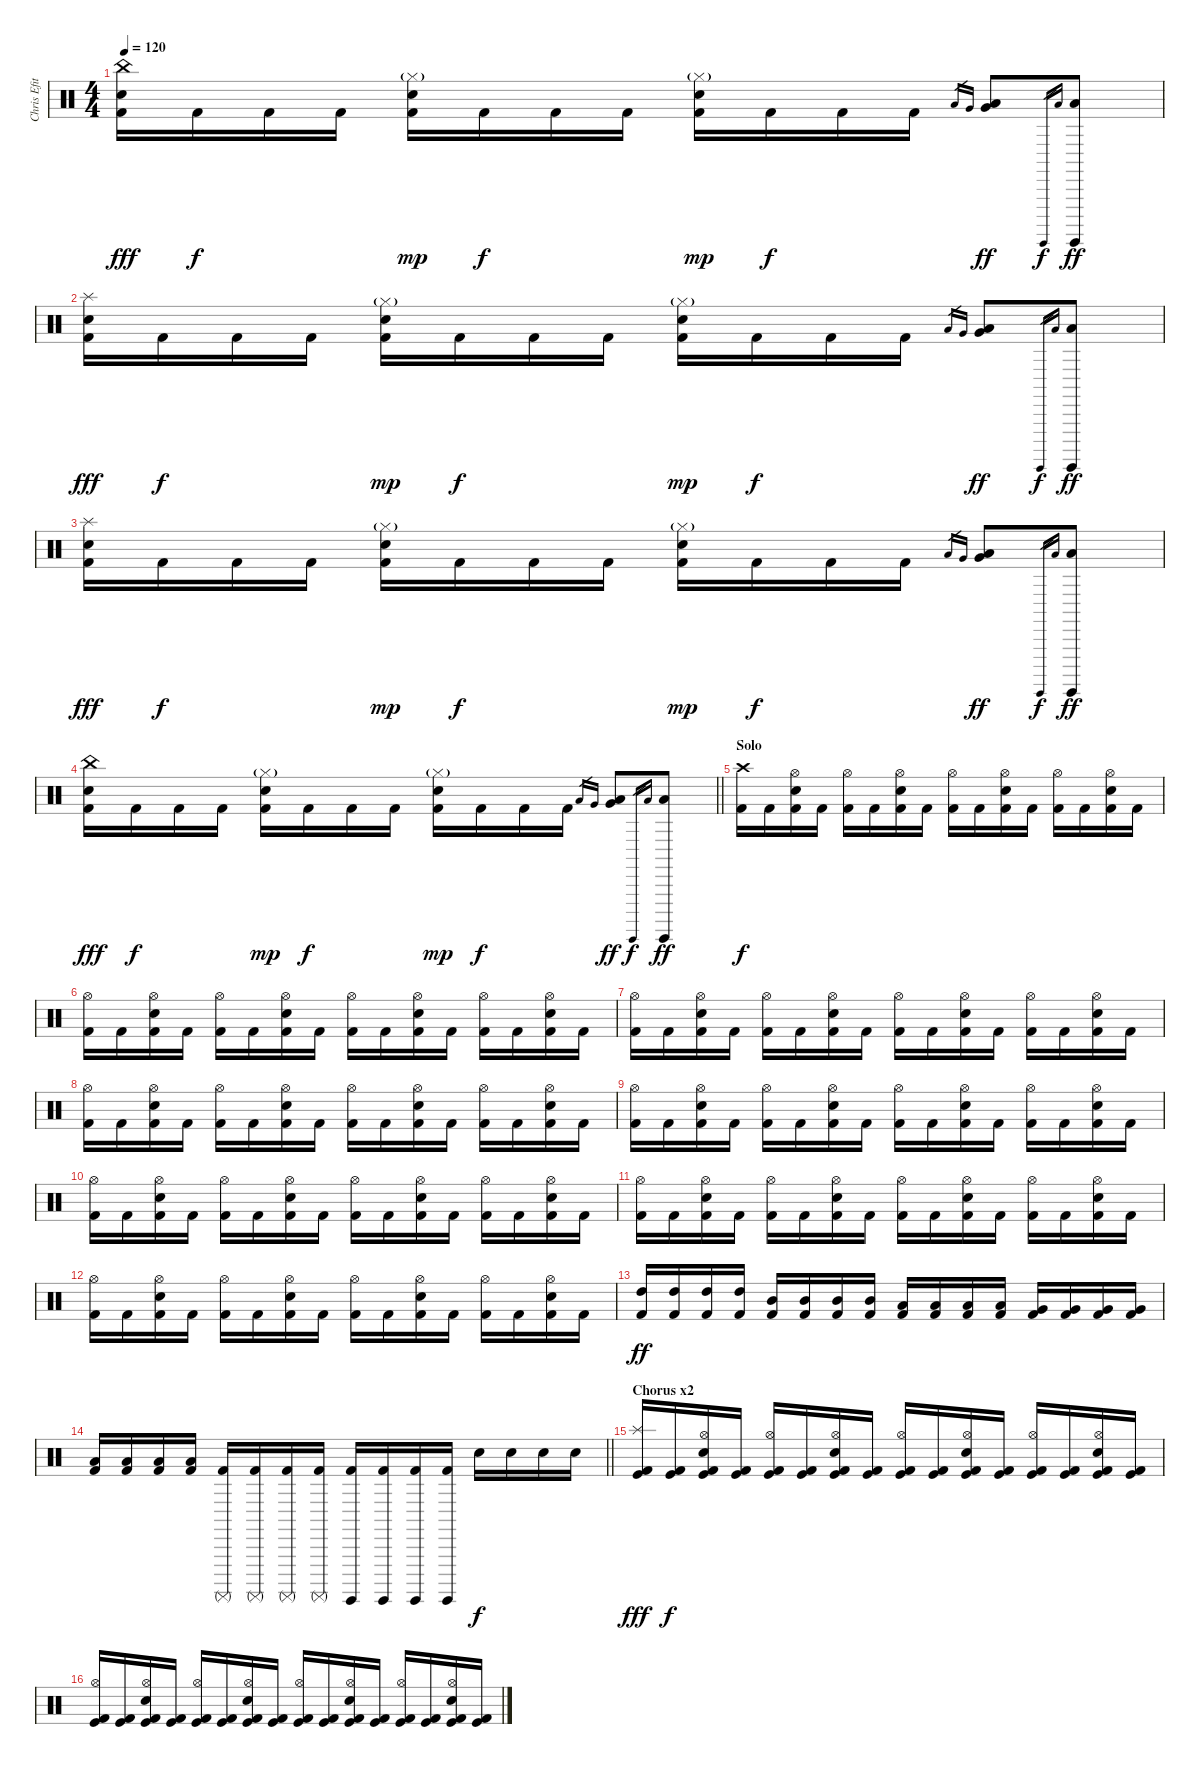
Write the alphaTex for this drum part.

\track ("Chris Efithimiadis (drums)" "Chris Efit") {instrument percussion}
\staff {score}
\articulation defaults
\ts (4 4)
\tempo 120
\clef neutral
\ks c
("China (hit)" "Snare (hit) 2" "Kick (hit) 2").16{dy fff} "Kick (hit) 2".16{dy f} "Kick (hit) 2".16 "Kick (hit) 2".16 ("Hi-Hat (closed)"{g} "Snare (hit) 2" "Kick (hit) 2").16{dy mp} "Kick (hit) 2".16{dy f} "Kick (hit) 2".16 "Kick (hit) 2".16 ("Hi-Hat (closed)"{g} "Snare (hit) 2" "Kick (hit) 2").16{dy mp} "Kick (hit) 2".16{dy f} "Kick (hit) 2".16 "Kick (hit) 2".16 "Low Floor Tom (hit)".16{gr} "Very Low Tom (hit)".16{gr} ("Low Floor Tom (hit)" "Very Low Tom (hit)").8{dy ff} "Surdo (hit)".16{gr dy f} "Low Floor Tom (hit)".16{gr} ("Surdo (hit)" "Low Floor Tom (hit)").8{dy ff} |
("Splash (hit)" "Snare (hit) 2" "Kick (hit) 2").16{dy fff} "Kick (hit) 2".16{dy f} "Kick (hit) 2".16 "Kick (hit) 2".16 ("Hi-Hat (closed)"{g} "Snare (hit) 2" "Kick (hit) 2").16{dy mp} "Kick (hit) 2".16{dy f} "Kick (hit) 2".16 "Kick (hit) 2".16 ("Hi-Hat (closed)"{g} "Snare (hit) 2" "Kick (hit) 2").16{dy mp} "Kick (hit) 2".16{dy f} "Kick (hit) 2".16 "Kick (hit) 2".16 "Low Floor Tom (hit)".16{gr} "Very Low Tom (hit)".16{gr} ("Low Floor Tom (hit)" "Very Low Tom (hit)").8{dy ff} "Surdo (hit)".16{gr dy f} "Low Floor Tom (hit)".16{gr} ("Surdo (hit)" "Low Floor Tom (hit)").8{dy ff} |
("Splash (hit)" "Snare (hit) 2" "Kick (hit) 2").16{dy fff} "Kick (hit) 2".16{dy f} "Kick (hit) 2".16 "Kick (hit) 2".16 ("Hi-Hat (closed)"{g} "Snare (hit) 2" "Kick (hit) 2").16{dy mp} "Kick (hit) 2".16{dy f} "Kick (hit) 2".16 "Kick (hit) 2".16 ("Hi-Hat (closed)"{g} "Snare (hit) 2" "Kick (hit) 2").16{dy mp} "Kick (hit) 2".16{dy f} "Kick (hit) 2".16 "Kick (hit) 2".16 "Low Floor Tom (hit)".16{gr} "Very Low Tom (hit)".16{gr} ("Low Floor Tom (hit)" "Very Low Tom (hit)").8{dy ff} "Surdo (hit)".16{gr dy f} "Low Floor Tom (hit)".16{gr} ("Surdo (hit)" "Low Floor Tom (hit)").8{dy ff} |
\barLineRight lightlight
("China (hit)" "Snare (hit) 2" "Kick (hit) 2").16{dy fff} "Kick (hit) 2".16{dy f} "Kick (hit) 2".16 "Kick (hit) 2".16 ("Hi-Hat (closed)"{g} "Snare (hit) 2" "Kick (hit) 2").16{dy mp} "Kick (hit) 2".16{dy f} "Kick (hit) 2".16 "Kick (hit) 2".16 ("Hi-Hat (closed)"{g} "Snare (hit) 2" "Kick (hit) 2").16{dy mp} "Kick (hit) 2".16{dy f} "Kick (hit) 2".16 "Kick (hit) 2".16 "Low Floor Tom (hit)".16{gr} "Very Low Tom (hit)".16{gr} ("Low Floor Tom (hit)" "Very Low Tom (hit)").8{dy ff} "Surdo (hit)".16{gr dy f} "Low Floor Tom (hit)".16{gr} ("Surdo (hit)" "Low Floor Tom (hit)").8{dy ff} |
\section ("" "Solo")
("Crash high (hit)" "Kick (hit) 2").16{dy f} "Kick (hit) 2".16 ("Hi-Hat (open)" "Snare (hit) 2" "Kick (hit) 2").16 "Kick (hit) 2".16 ("Hi-Hat (open)" "Kick (hit) 2").16 "Kick (hit) 2".16 ("Hi-Hat (open)" "Snare (hit) 2" "Kick (hit) 2").16 "Kick (hit) 2".16 ("Hi-Hat (open)" "Kick (hit) 2").16 "Kick (hit) 2".16 ("Hi-Hat (open)" "Snare (hit) 2" "Kick (hit) 2").16 "Kick (hit) 2".16 ("Hi-Hat (open)" "Kick (hit) 2").16 "Kick (hit) 2".16 ("Hi-Hat (open)" "Snare (hit) 2" "Kick (hit) 2").16 "Kick (hit) 2".16 |
("Hi-Hat (open)" "Kick (hit) 2").16 "Kick (hit) 2".16 ("Hi-Hat (open)" "Snare (hit) 2" "Kick (hit) 2").16 "Kick (hit) 2".16 ("Hi-Hat (open)" "Kick (hit) 2").16 "Kick (hit) 2".16 ("Hi-Hat (open)" "Snare (hit) 2" "Kick (hit) 2").16 "Kick (hit) 2".16 ("Hi-Hat (open)" "Kick (hit) 2").16 "Kick (hit) 2".16 ("Hi-Hat (open)" "Snare (hit) 2" "Kick (hit) 2").16 "Kick (hit) 2".16 ("Hi-Hat (open)" "Kick (hit) 2").16 "Kick (hit) 2".16 ("Hi-Hat (open)" "Snare (hit) 2" "Kick (hit) 2").16 "Kick (hit) 2".16 |
("Hi-Hat (open)" "Kick (hit) 2").16 "Kick (hit) 2".16 ("Hi-Hat (open)" "Snare (hit) 2" "Kick (hit) 2").16 "Kick (hit) 2".16 ("Hi-Hat (open)" "Kick (hit) 2").16 "Kick (hit) 2".16 ("Hi-Hat (open)" "Snare (hit) 2" "Kick (hit) 2").16 "Kick (hit) 2".16 ("Hi-Hat (open)" "Kick (hit) 2").16 "Kick (hit) 2".16 ("Hi-Hat (open)" "Snare (hit) 2" "Kick (hit) 2").16 "Kick (hit) 2".16 ("Hi-Hat (open)" "Kick (hit) 2").16 "Kick (hit) 2".16 ("Hi-Hat (open)" "Snare (hit) 2" "Kick (hit) 2").16 "Kick (hit) 2".16 |
("Hi-Hat (open)" "Kick (hit) 2").16 "Kick (hit) 2".16 ("Hi-Hat (open)" "Snare (hit) 2" "Kick (hit) 2").16 "Kick (hit) 2".16 ("Hi-Hat (open)" "Kick (hit) 2").16 "Kick (hit) 2".16 ("Hi-Hat (open)" "Snare (hit) 2" "Kick (hit) 2").16 "Kick (hit) 2".16 ("Hi-Hat (open)" "Kick (hit) 2").16 "Kick (hit) 2".16 ("Hi-Hat (open)" "Snare (hit) 2" "Kick (hit) 2").16 "Kick (hit) 2".16 ("Hi-Hat (open)" "Kick (hit) 2").16 "Kick (hit) 2".16 ("Hi-Hat (open)" "Snare (hit) 2" "Kick (hit) 2").16 "Kick (hit) 2".16 |
("Hi-Hat (open)" "Kick (hit) 2").16 "Kick (hit) 2".16 ("Hi-Hat (open)" "Snare (hit) 2" "Kick (hit) 2").16 "Kick (hit) 2".16 ("Hi-Hat (open)" "Kick (hit) 2").16 "Kick (hit) 2".16 ("Hi-Hat (open)" "Snare (hit) 2" "Kick (hit) 2").16 "Kick (hit) 2".16 ("Hi-Hat (open)" "Kick (hit) 2").16 "Kick (hit) 2".16 ("Hi-Hat (open)" "Snare (hit) 2" "Kick (hit) 2").16 "Kick (hit) 2".16 ("Hi-Hat (open)" "Kick (hit) 2").16 "Kick (hit) 2".16 ("Hi-Hat (open)" "Snare (hit) 2" "Kick (hit) 2").16 "Kick (hit) 2".16 |
("Hi-Hat (open)" "Kick (hit) 2").16 "Kick (hit) 2".16 ("Hi-Hat (open)" "Snare (hit) 2" "Kick (hit) 2").16 "Kick (hit) 2".16 ("Hi-Hat (open)" "Kick (hit) 2").16 "Kick (hit) 2".16 ("Hi-Hat (open)" "Snare (hit) 2" "Kick (hit) 2").16 "Kick (hit) 2".16 ("Hi-Hat (open)" "Kick (hit) 2").16 "Kick (hit) 2".16 ("Hi-Hat (open)" "Snare (hit) 2" "Kick (hit) 2").16 "Kick (hit) 2".16 ("Hi-Hat (open)" "Kick (hit) 2").16 "Kick (hit) 2".16 ("Hi-Hat (open)" "Snare (hit) 2" "Kick (hit) 2").16 "Kick (hit) 2".16 |
("Hi-Hat (open)" "Kick (hit) 2").16 "Kick (hit) 2".16 ("Hi-Hat (open)" "Snare (hit) 2" "Kick (hit) 2").16 "Kick (hit) 2".16 ("Hi-Hat (open)" "Kick (hit) 2").16 "Kick (hit) 2".16 ("Hi-Hat (open)" "Snare (hit) 2" "Kick (hit) 2").16 "Kick (hit) 2".16 ("Hi-Hat (open)" "Kick (hit) 2").16 "Kick (hit) 2".16 ("Hi-Hat (open)" "Snare (hit) 2" "Kick (hit) 2").16 "Kick (hit) 2".16 ("Hi-Hat (open)" "Kick (hit) 2").16 "Kick (hit) 2".16 ("Hi-Hat (open)" "Snare (hit) 2" "Kick (hit) 2").16 "Kick (hit) 2".16 |
("Hi-Hat (open)" "Kick (hit) 2").16 "Kick (hit) 2".16 ("Hi-Hat (open)" "Snare (hit) 2" "Kick (hit) 2").16 "Kick (hit) 2".16 ("Hi-Hat (open)" "Kick (hit) 2").16 "Kick (hit) 2".16 ("Hi-Hat (open)" "Snare (hit) 2" "Kick (hit) 2").16 "Kick (hit) 2".16 ("Hi-Hat (open)" "Kick (hit) 2").16 "Kick (hit) 2".16 ("Hi-Hat (open)" "Snare (hit) 2" "Kick (hit) 2").16 "Kick (hit) 2".16 ("Hi-Hat (open)" "Kick (hit) 2").16 "Kick (hit) 2".16 ("Hi-Hat (open)" "Snare (hit) 2" "Kick (hit) 2").16 "Kick (hit) 2".16 |
("High Tom (hit)" "Kick (hit) 2").16{dy ff} ("High Tom (hit)" "Kick (hit) 2").16 ("High Tom (hit)" "Kick (hit) 2").16 ("High Tom (hit)" "Kick (hit) 2").16 ("Mid Tom (hit)" "Kick (hit) 2").16 ("Mid Tom (hit)" "Kick (hit) 2").16 ("Mid Tom (hit)" "Kick (hit) 2").16 ("Mid Tom (hit)" "Kick (hit) 2").16 ("Low Tom (hit)" "Kick (hit) 2").16 ("Low Tom (hit)" "Kick (hit) 2").16 ("Low Tom (hit)" "Kick (hit) 2").16 ("Low Tom (hit)" "Kick (hit) 2").16 ("Very Low Tom (hit)" "Kick (hit) 2").16 ("Very Low Tom (hit)" "Kick (hit) 2").16 ("Very Low Tom (hit)" "Kick (hit) 2").16 ("Very Low Tom (hit)" "Kick (hit) 2").16 |
\barLineRight lightlight
("Low Floor Tom (hit)" "Kick (hit) 2").16 ("Low Floor Tom (hit)" "Kick (hit) 2").16 ("Low Floor Tom (hit)" "Kick (hit) 2").16 ("Low Floor Tom (hit)" "Kick (hit) 2").16 ("Surdo (mute)" "Kick (hit) 2").16 ("Surdo (mute)" "Kick (hit) 2").16 ("Surdo (mute)" "Kick (hit) 2").16 ("Surdo (mute)" "Kick (hit) 2").16 ("Surdo (hit)" "Kick (hit) 2").16 ("Surdo (hit)" "Kick (hit) 2").16 ("Surdo (hit)" "Kick (hit) 2").16 ("Surdo (hit)" "Kick (hit) 2").16 "Snare (hit) 2".16{dy f} "Snare (hit) 2".16 "Snare (hit) 2".16 "Snare (hit) 2".16 |
\section ("" "Chorus x2")
("Splash (hit)" "Kick (hit)" "Kick (hit) 2").16{dy fff} ("Kick (hit)" "Kick (hit) 2").16{dy f} ("Hi-Hat (open)" "Snare (hit) 2" "Kick (hit)" "Kick (hit) 2").16 ("Kick (hit)" "Kick (hit) 2").16 ("Hi-Hat (open)" "Kick (hit)" "Kick (hit) 2").16 ("Kick (hit)" "Kick (hit) 2").16 ("Hi-Hat (open)" "Snare (hit) 2" "Kick (hit)" "Kick (hit) 2").16 ("Kick (hit)" "Kick (hit) 2").16 ("Hi-Hat (open)" "Kick (hit)" "Kick (hit) 2").16 ("Kick (hit)" "Kick (hit) 2").16 ("Hi-Hat (open)" "Snare (hit) 2" "Kick (hit)" "Kick (hit) 2").16 ("Kick (hit)" "Kick (hit) 2").16 ("Hi-Hat (open)" "Kick (hit)" "Kick (hit) 2").16 ("Kick (hit)" "Kick (hit) 2").16 ("Hi-Hat (open)" "Snare (hit) 2" "Kick (hit)" "Kick (hit) 2").16 ("Kick (hit)" "Kick (hit) 2").16 |
("Hi-Hat (open)" "Kick (hit)" "Kick (hit) 2").16 ("Kick (hit)" "Kick (hit) 2").16 ("Hi-Hat (open)" "Snare (hit) 2" "Kick (hit)" "Kick (hit) 2").16 ("Kick (hit)" "Kick (hit) 2").16 ("Hi-Hat (open)" "Kick (hit)" "Kick (hit) 2").16 ("Kick (hit)" "Kick (hit) 2").16 ("Hi-Hat (open)" "Snare (hit) 2" "Kick (hit)" "Kick (hit) 2").16 ("Kick (hit)" "Kick (hit) 2").16 ("Hi-Hat (open)" "Kick (hit)" "Kick (hit) 2").16 ("Kick (hit)" "Kick (hit) 2").16 ("Hi-Hat (open)" "Snare (hit) 2" "Kick (hit)" "Kick (hit) 2").16 ("Kick (hit)" "Kick (hit) 2").16 ("Hi-Hat (open)" "Kick (hit)" "Kick (hit) 2").16 ("Kick (hit)" "Kick (hit) 2").16 ("Hi-Hat (open)" "Snare (hit) 2" "Kick (hit)" "Kick (hit) 2").16 ("Kick (hit)" "Kick (hit) 2").16
